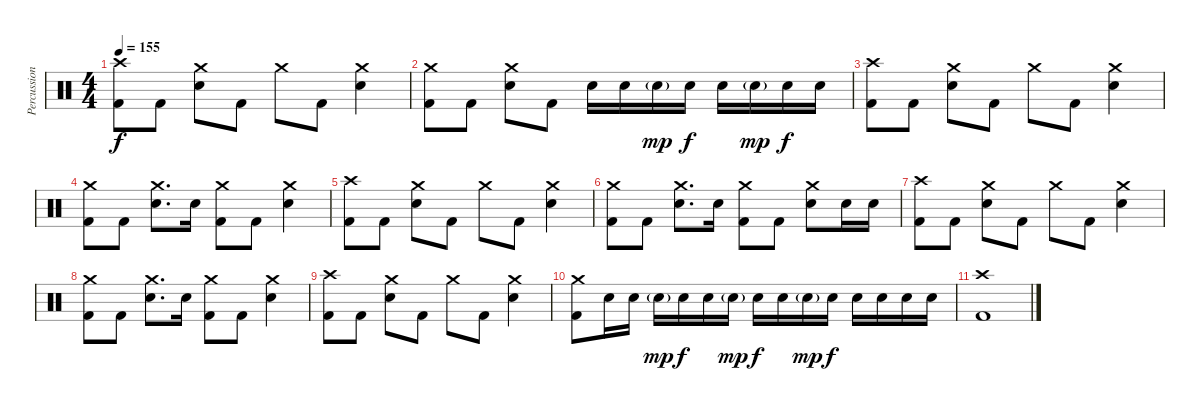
\track ("Percussion" "Percussion") {instrument percussion}
\staff {score}
\articulation defaults
\ts (4 4)
\tempo 155
\clef neutral
\ks c
("Crash high (hit)" "Kick (hit) 2").8{dy f} "Kick (hit) 2".8 ("Crash medium (hit)" "Electric Snare (hit)").8 "Kick (hit) 2".8 "Crash medium (hit)".8 "Kick (hit) 2".8 ("Crash medium (hit)" "Electric Snare (hit)").4 |
("Crash medium (hit)" "Kick (hit) 2").8 "Kick (hit) 2".8 ("Crash medium (hit)" "Electric Snare (hit)").8 "Kick (hit) 2".8 "Electric Snare (hit)".16 "Electric Snare (hit)".16 "Electric Snare (hit)"{g}.16{dy mp} "Electric Snare (hit)".16{dy f} "Electric Snare (hit)".16 "Electric Snare (hit)"{g}.16{dy mp} "Electric Snare (hit)".16{dy f} "Electric Snare (hit)".16 |
("Crash high (hit)" "Kick (hit) 2").8 "Kick (hit) 2".8 ("Crash medium (hit)" "Electric Snare (hit)").8 "Kick (hit) 2".8 "Crash medium (hit)".8 "Kick (hit) 2".8 ("Crash medium (hit)" "Electric Snare (hit)").4 |
("Crash medium (hit)" "Kick (hit) 2").8 "Kick (hit) 2".8 ("Crash medium (hit)" "Electric Snare (hit)").8{d} "Electric Snare (hit)".16 ("Crash medium (hit)" "Kick (hit) 2").8 "Kick (hit) 2".8 ("Crash medium (hit)" "Electric Snare (hit)").4 |
("Crash high (hit)" "Kick (hit) 2").8 "Kick (hit) 2".8 ("Crash medium (hit)" "Electric Snare (hit)").8 "Kick (hit) 2".8 "Crash medium (hit)".8 "Kick (hit) 2".8 ("Crash medium (hit)" "Electric Snare (hit)").4 |
("Crash medium (hit)" "Kick (hit) 2").8 "Kick (hit) 2".8 ("Crash medium (hit)" "Electric Snare (hit)").8{d} "Electric Snare (hit)".16 ("Crash medium (hit)" "Kick (hit) 2").8 "Kick (hit) 2".8 ("Crash medium (hit)" "Electric Snare (hit)").8 "Electric Snare (hit)".16 "Electric Snare (hit)".16 |
("Crash high (hit)" "Kick (hit) 2").8 "Kick (hit) 2".8 ("Crash medium (hit)" "Electric Snare (hit)").8 "Kick (hit) 2".8 "Crash medium (hit)".8 "Kick (hit) 2".8 ("Crash medium (hit)" "Electric Snare (hit)").4 |
("Crash medium (hit)" "Kick (hit) 2").8 "Kick (hit) 2".8 ("Crash medium (hit)" "Electric Snare (hit)").8{d} "Electric Snare (hit)".16 ("Crash medium (hit)" "Kick (hit) 2").8 "Kick (hit) 2".8 ("Crash medium (hit)" "Electric Snare (hit)").4 |
("Crash high (hit)" "Kick (hit) 2").8 "Kick (hit) 2".8 ("Crash medium (hit)" "Electric Snare (hit)").8 "Kick (hit) 2".8 "Crash medium (hit)".8 "Kick (hit) 2".8 ("Crash medium (hit)" "Electric Snare (hit)").4 |
("Crash medium (hit)" "Kick (hit) 2").8 "Electric Snare (hit)".16 "Electric Snare (hit)".16 "Electric Snare (hit)"{g}.16{dy mp} "Electric Snare (hit)".16{dy f} "Electric Snare (hit)".16 "Electric Snare (hit)"{g}.16{dy mp} "Electric Snare (hit)".16{dy f} "Electric Snare (hit)".16 "Electric Snare (hit)"{g}.16{dy mp} "Electric Snare (hit)".16{dy f} "Electric Snare (hit)".16 "Electric Snare (hit)".16 "Electric Snare (hit)".16 "Electric Snare (hit)".16 |
("Crash high (hit)" "Kick (hit) 2").1
